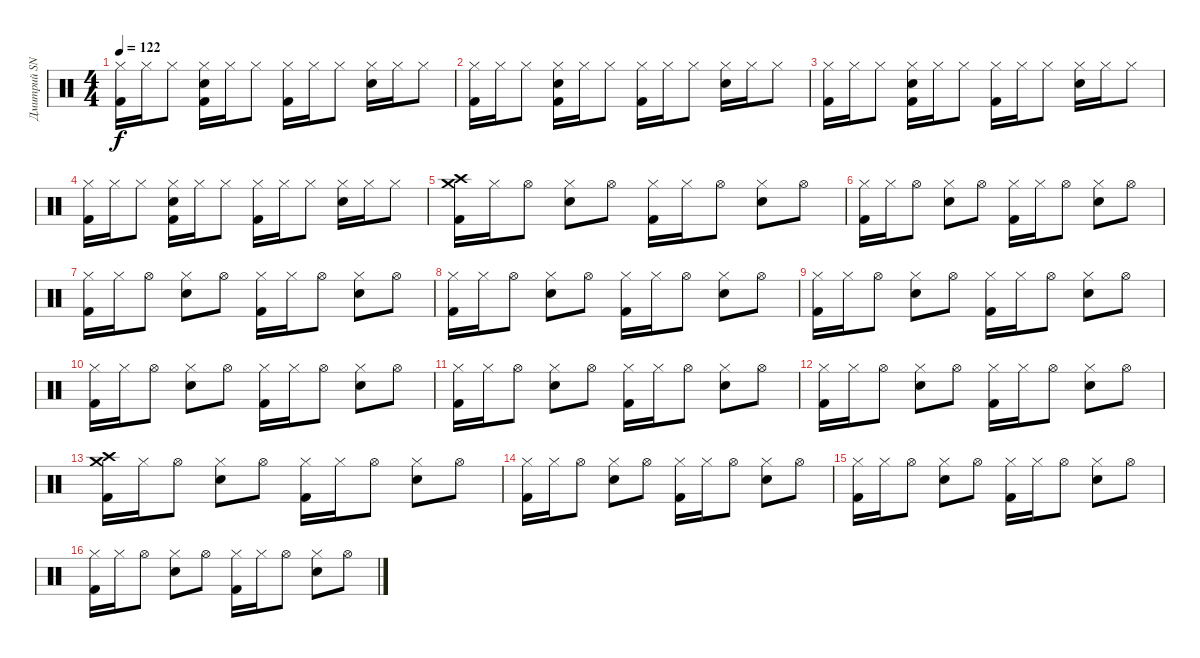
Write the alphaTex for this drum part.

\track ("Дмитрий SNAKE Хакимов" "Дмитрий SN") {instrument percussion}
\staff {score}
\articulation defaults
\ts (4 4)
\tempo 122
\clef neutral
\ks c
("Hi-Hat (closed)" "Kick (hit) 2").16{dy f} "Hi-Hat (closed)".16 "Hi-Hat (closed)".8 ("Hi-Hat (closed)" "Snare (hit) 2" "Kick (hit) 2").16 "Hi-Hat (closed)".16 "Hi-Hat (closed)".8 ("Hi-Hat (closed)" "Kick (hit) 2").16 "Hi-Hat (closed)".16 "Hi-Hat (closed)".8 ("Hi-Hat (closed)" "Snare (hit) 2").16 "Hi-Hat (closed)".16 "Hi-Hat (closed)".8 |
("Hi-Hat (closed)" "Kick (hit) 2").16 "Hi-Hat (closed)".16 "Hi-Hat (closed)".8 ("Hi-Hat (closed)" "Snare (hit) 2" "Kick (hit) 2").16 "Hi-Hat (closed)".16 "Hi-Hat (closed)".8 ("Hi-Hat (closed)" "Kick (hit) 2").16 "Hi-Hat (closed)".16 "Hi-Hat (closed)".8 ("Hi-Hat (closed)" "Snare (hit) 2").16 "Hi-Hat (closed)".16 "Hi-Hat (closed)".8 |
("Hi-Hat (closed)" "Kick (hit) 2").16 "Hi-Hat (closed)".16 "Hi-Hat (closed)".8 ("Hi-Hat (closed)" "Snare (hit) 2" "Kick (hit) 2").16 "Hi-Hat (closed)".16 "Hi-Hat (closed)".8 ("Hi-Hat (closed)" "Kick (hit) 2").16 "Hi-Hat (closed)".16 "Hi-Hat (closed)".8 ("Hi-Hat (closed)" "Snare (hit) 2").16 "Hi-Hat (closed)".16 "Hi-Hat (closed)".8 |
("Hi-Hat (closed)" "Kick (hit) 2").16 "Hi-Hat (closed)".16 "Hi-Hat (closed)".8 ("Hi-Hat (closed)" "Snare (hit) 2" "Kick (hit) 2").16 "Hi-Hat (closed)".16 "Hi-Hat (closed)".8 ("Hi-Hat (closed)" "Kick (hit) 2").16 "Hi-Hat (closed)".16 "Hi-Hat (closed)".8 ("Hi-Hat (closed)" "Snare (hit) 2").16 "Hi-Hat (closed)".16 "Hi-Hat (closed)".8 |
("Crash high (hit)" "Crash medium (hit)" "Kick (hit) 2").16 "Hi-Hat (closed)".16 "Hi-Hat (open)".8 ("Hi-Hat (closed)" "Snare (hit) 2").8 "Hi-Hat (open)".8 ("Hi-Hat (closed)" "Kick (hit) 2").16 "Hi-Hat (closed)".16 "Hi-Hat (open)".8 ("Hi-Hat (closed)" "Snare (hit) 2").8 "Hi-Hat (open)".8 |
("Hi-Hat (closed)" "Kick (hit) 2").16 "Hi-Hat (closed)".16 "Hi-Hat (open)".8 ("Hi-Hat (closed)" "Snare (hit) 2").8 "Hi-Hat (open)".8 ("Hi-Hat (closed)" "Kick (hit) 2").16 "Hi-Hat (closed)".16 "Hi-Hat (open)".8 ("Hi-Hat (closed)" "Snare (hit) 2").8 "Hi-Hat (open)".8 |
("Hi-Hat (closed)" "Kick (hit) 2").16 "Hi-Hat (closed)".16 "Hi-Hat (open)".8 ("Hi-Hat (closed)" "Snare (hit) 2").8 "Hi-Hat (open)".8 ("Hi-Hat (closed)" "Kick (hit) 2").16 "Hi-Hat (closed)".16 "Hi-Hat (open)".8 ("Hi-Hat (closed)" "Snare (hit) 2").8 "Hi-Hat (open)".8 |
("Hi-Hat (closed)" "Kick (hit) 2").16 "Hi-Hat (closed)".16 "Hi-Hat (open)".8 ("Hi-Hat (closed)" "Snare (hit) 2").8 "Hi-Hat (open)".8 ("Hi-Hat (closed)" "Kick (hit) 2").16 "Hi-Hat (closed)".16 "Hi-Hat (open)".8 ("Hi-Hat (closed)" "Snare (hit) 2").8 "Hi-Hat (open)".8 |
("Hi-Hat (closed)" "Kick (hit) 2").16 "Hi-Hat (closed)".16 "Hi-Hat (open)".8 ("Hi-Hat (closed)" "Snare (hit) 2").8 "Hi-Hat (open)".8 ("Hi-Hat (closed)" "Kick (hit) 2").16 "Hi-Hat (closed)".16 "Hi-Hat (open)".8 ("Hi-Hat (closed)" "Snare (hit) 2").8 "Hi-Hat (open)".8 |
("Hi-Hat (closed)" "Kick (hit) 2").16 "Hi-Hat (closed)".16 "Hi-Hat (open)".8 ("Hi-Hat (closed)" "Snare (hit) 2").8 "Hi-Hat (open)".8 ("Hi-Hat (closed)" "Kick (hit) 2").16 "Hi-Hat (closed)".16 "Hi-Hat (open)".8 ("Hi-Hat (closed)" "Snare (hit) 2").8 "Hi-Hat (open)".8 |
("Hi-Hat (closed)" "Kick (hit) 2").16 "Hi-Hat (closed)".16 "Hi-Hat (open)".8 ("Hi-Hat (closed)" "Snare (hit) 2").8 "Hi-Hat (open)".8 ("Hi-Hat (closed)" "Kick (hit) 2").16 "Hi-Hat (closed)".16 "Hi-Hat (open)".8 ("Hi-Hat (closed)" "Snare (hit) 2").8 "Hi-Hat (open)".8 |
("Hi-Hat (closed)" "Kick (hit) 2").16 "Hi-Hat (closed)".16 "Hi-Hat (open)".8 ("Hi-Hat (closed)" "Snare (hit) 2").8 "Hi-Hat (open)".8 ("Hi-Hat (closed)" "Kick (hit) 2").16 "Hi-Hat (closed)".16 "Hi-Hat (open)".8 ("Hi-Hat (closed)" "Snare (hit) 2").8 "Hi-Hat (open)".8 |
("Crash high (hit)" "Crash medium (hit)" "Kick (hit) 2").16 "Hi-Hat (closed)".16 "Hi-Hat (open)".8 ("Hi-Hat (closed)" "Snare (hit) 2").8 "Hi-Hat (open)".8 ("Hi-Hat (closed)" "Kick (hit) 2").16 "Hi-Hat (closed)".16 "Hi-Hat (open)".8 ("Hi-Hat (closed)" "Snare (hit) 2").8 "Hi-Hat (open)".8 |
("Hi-Hat (closed)" "Kick (hit) 2").16 "Hi-Hat (closed)".16 "Hi-Hat (open)".8 ("Hi-Hat (closed)" "Snare (hit) 2").8 "Hi-Hat (open)".8 ("Hi-Hat (closed)" "Kick (hit) 2").16 "Hi-Hat (closed)".16 "Hi-Hat (open)".8 ("Hi-Hat (closed)" "Snare (hit) 2").8 "Hi-Hat (open)".8 |
("Hi-Hat (closed)" "Kick (hit) 2").16 "Hi-Hat (closed)".16 "Hi-Hat (open)".8 ("Hi-Hat (closed)" "Snare (hit) 2").8 "Hi-Hat (open)".8 ("Hi-Hat (closed)" "Kick (hit) 2").16 "Hi-Hat (closed)".16 "Hi-Hat (open)".8 ("Hi-Hat (closed)" "Snare (hit) 2").8 "Hi-Hat (open)".8 |
("Hi-Hat (closed)" "Kick (hit) 2").16 "Hi-Hat (closed)".16 "Hi-Hat (open)".8 ("Hi-Hat (closed)" "Snare (hit) 2").8 "Hi-Hat (open)".8 ("Hi-Hat (closed)" "Kick (hit) 2").16 "Hi-Hat (closed)".16 "Hi-Hat (open)".8 ("Hi-Hat (closed)" "Snare (hit) 2").8 "Hi-Hat (open)".8
